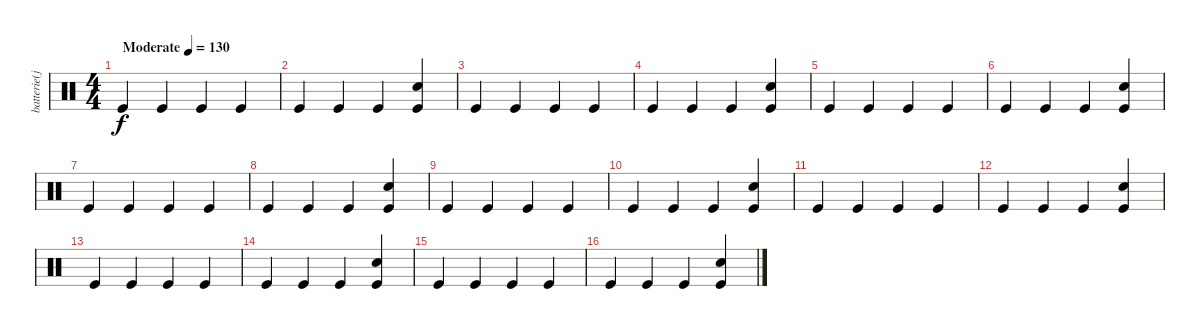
\track ("batterie(joost)" "batterie(j") {instrument percussion}
\staff {score}
\articulation defaults
\ts (4 4)
\tempo (130 "Moderate")
\clef neutral
\ks c "Kick (hit)".4{dy f} "Kick (hit)".4 "Kick (hit)".4 "Kick (hit)".4
|
"Kick (hit)".4 "Kick (hit)".4 "Kick (hit)".4 ("Snare (hit) 2" "Kick (hit)").4 |
"Kick (hit)".4 "Kick (hit)".4 "Kick (hit)".4 "Kick (hit)".4 |
"Kick (hit)".4 "Kick (hit)".4 "Kick (hit)".4 ("Snare (hit) 2" "Kick (hit)").4 |
"Kick (hit)".4 "Kick (hit)".4 "Kick (hit)".4 "Kick (hit)".4 |
"Kick (hit)".4 "Kick (hit)".4 "Kick (hit)".4 ("Snare (hit) 2" "Kick (hit)").4 |
"Kick (hit)".4 "Kick (hit)".4 "Kick (hit)".4 "Kick (hit)".4 |
"Kick (hit)".4 "Kick (hit)".4 "Kick (hit)".4 ("Snare (hit) 2" "Kick (hit)").4 |
"Kick (hit)".4 "Kick (hit)".4 "Kick (hit)".4 "Kick (hit)".4 |
"Kick (hit)".4 "Kick (hit)".4 "Kick (hit)".4 ("Snare (hit) 2" "Kick (hit)").4 |
"Kick (hit)".4 "Kick (hit)".4 "Kick (hit)".4 "Kick (hit)".4 |
"Kick (hit)".4 "Kick (hit)".4 "Kick (hit)".4 ("Snare (hit) 2" "Kick (hit)").4 |
"Kick (hit)".4 "Kick (hit)".4 "Kick (hit)".4 "Kick (hit)".4 |
"Kick (hit)".4 "Kick (hit)".4 "Kick (hit)".4 ("Snare (hit) 2" "Kick (hit)").4 |
"Kick (hit)".4 "Kick (hit)".4 "Kick (hit)".4 "Kick (hit)".4 |
"Kick (hit)".4 "Kick (hit)".4 "Kick (hit)".4 ("Snare (hit) 2" "Kick (hit)").4
